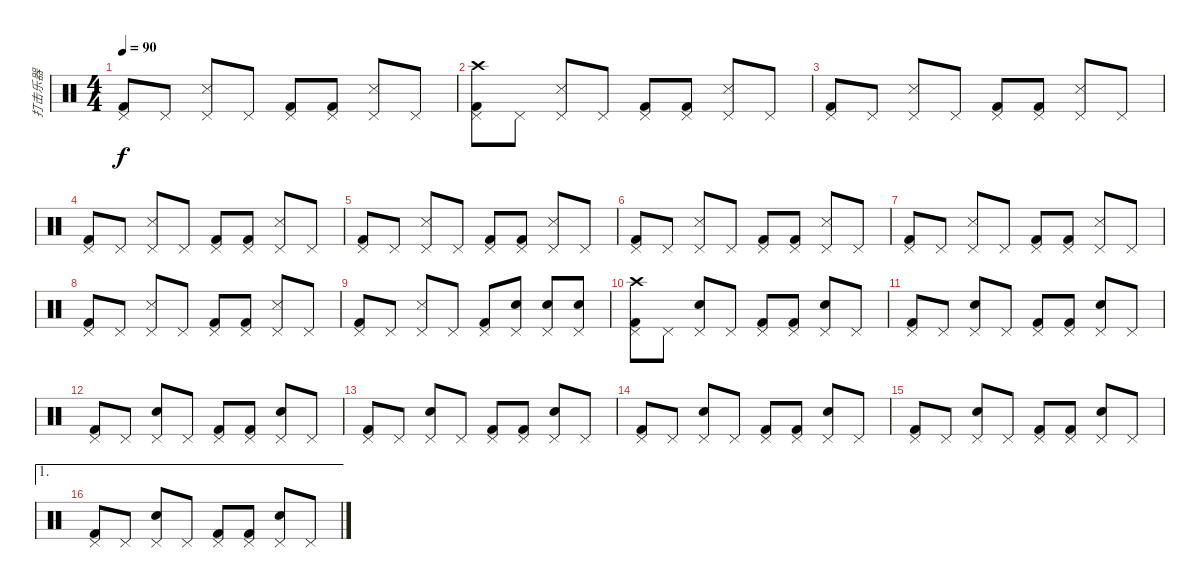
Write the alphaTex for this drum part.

\track ("打击乐器" "打击乐器") {instrument percussion}
\staff {score}
\articulation defaults
\ts (4 4)
\tempo 90
\clef neutral
\ks c
("Kick (hit) 2" "Pedal Hi-Hat (hit)").8{dy f} "Pedal Hi-Hat (hit)".8 ("Snare (side stick) 3" "Pedal Hi-Hat (hit)").8 "Pedal Hi-Hat (hit)".8 ("Kick (hit) 2" "Pedal Hi-Hat (hit)").8 ("Kick (hit) 2" "Pedal Hi-Hat (hit)").8 ("Snare (side stick) 3" "Pedal Hi-Hat (hit)").8 "Pedal Hi-Hat (hit)".8 |
("Crash high (hit)" "Kick (hit) 2" "Pedal Hi-Hat (hit)").8 "Pedal Hi-Hat (hit)".8 ("Snare (side stick) 3" "Pedal Hi-Hat (hit)").8 "Pedal Hi-Hat (hit)".8 ("Kick (hit) 2" "Pedal Hi-Hat (hit)").8 ("Kick (hit) 2" "Pedal Hi-Hat (hit)").8 ("Snare (side stick) 3" "Pedal Hi-Hat (hit)").8 "Pedal Hi-Hat (hit)".8 |
("Kick (hit) 2" "Pedal Hi-Hat (hit)").8 "Pedal Hi-Hat (hit)".8 ("Snare (side stick) 3" "Pedal Hi-Hat (hit)").8 "Pedal Hi-Hat (hit)".8 ("Kick (hit) 2" "Pedal Hi-Hat (hit)").8 ("Kick (hit) 2" "Pedal Hi-Hat (hit)").8 ("Snare (side stick) 3" "Pedal Hi-Hat (hit)").8 "Pedal Hi-Hat (hit)".8 |
("Kick (hit) 2" "Pedal Hi-Hat (hit)").8 "Pedal Hi-Hat (hit)".8 ("Snare (side stick) 3" "Pedal Hi-Hat (hit)").8 "Pedal Hi-Hat (hit)".8 ("Kick (hit) 2" "Pedal Hi-Hat (hit)").8 ("Kick (hit) 2" "Pedal Hi-Hat (hit)").8 ("Snare (side stick) 3" "Pedal Hi-Hat (hit)").8 "Pedal Hi-Hat (hit)".8 |
("Kick (hit) 2" "Pedal Hi-Hat (hit)").8 "Pedal Hi-Hat (hit)".8 ("Snare (side stick) 3" "Pedal Hi-Hat (hit)").8 "Pedal Hi-Hat (hit)".8 ("Kick (hit) 2" "Pedal Hi-Hat (hit)").8 ("Kick (hit) 2" "Pedal Hi-Hat (hit)").8 ("Snare (side stick) 3" "Pedal Hi-Hat (hit)").8 "Pedal Hi-Hat (hit)".8 |
("Kick (hit) 2" "Pedal Hi-Hat (hit)").8 "Pedal Hi-Hat (hit)".8 ("Snare (side stick) 3" "Pedal Hi-Hat (hit)").8 "Pedal Hi-Hat (hit)".8 ("Kick (hit) 2" "Pedal Hi-Hat (hit)").8 ("Kick (hit) 2" "Pedal Hi-Hat (hit)").8 ("Snare (side stick) 3" "Pedal Hi-Hat (hit)").8 "Pedal Hi-Hat (hit)".8 |
("Kick (hit) 2" "Pedal Hi-Hat (hit)").8 "Pedal Hi-Hat (hit)".8 ("Snare (side stick) 3" "Pedal Hi-Hat (hit)").8 "Pedal Hi-Hat (hit)".8 ("Kick (hit) 2" "Pedal Hi-Hat (hit)").8 ("Kick (hit) 2" "Pedal Hi-Hat (hit)").8 ("Snare (side stick) 3" "Pedal Hi-Hat (hit)").8 "Pedal Hi-Hat (hit)".8 |
("Kick (hit) 2" "Pedal Hi-Hat (hit)").8 "Pedal Hi-Hat (hit)".8 ("Snare (side stick) 3" "Pedal Hi-Hat (hit)").8 "Pedal Hi-Hat (hit)".8 ("Kick (hit) 2" "Pedal Hi-Hat (hit)").8 ("Kick (hit) 2" "Pedal Hi-Hat (hit)").8 ("Snare (side stick) 3" "Pedal Hi-Hat (hit)").8 "Pedal Hi-Hat (hit)".8 |
("Kick (hit) 2" "Pedal Hi-Hat (hit)").8 "Pedal Hi-Hat (hit)".8 ("Snare (side stick) 3" "Pedal Hi-Hat (hit)").8 "Pedal Hi-Hat (hit)".8 ("Kick (hit) 2" "Pedal Hi-Hat (hit)").8 ("Snare (hit) 2" "Pedal Hi-Hat (hit)").8 ("Snare (hit) 2" "Pedal Hi-Hat (hit)").8 ("Snare (hit) 2" "Pedal Hi-Hat (hit)").8 |
("Crash high (hit)" "Kick (hit) 2" "Pedal Hi-Hat (hit)").8 "Pedal Hi-Hat (hit)".8 ("Snare (hit) 2" "Pedal Hi-Hat (hit)").8 "Pedal Hi-Hat (hit)".8 ("Kick (hit) 2" "Pedal Hi-Hat (hit)").8 ("Kick (hit) 2" "Pedal Hi-Hat (hit)").8 ("Snare (hit) 2" "Pedal Hi-Hat (hit)").8 "Pedal Hi-Hat (hit)".8 |
("Kick (hit) 2" "Pedal Hi-Hat (hit)").8 "Pedal Hi-Hat (hit)".8 ("Snare (hit) 2" "Pedal Hi-Hat (hit)").8 "Pedal Hi-Hat (hit)".8 ("Kick (hit) 2" "Pedal Hi-Hat (hit)").8 ("Kick (hit) 2" "Pedal Hi-Hat (hit)").8 ("Snare (hit) 2" "Pedal Hi-Hat (hit)").8 "Pedal Hi-Hat (hit)".8 |
("Kick (hit) 2" "Pedal Hi-Hat (hit)").8 "Pedal Hi-Hat (hit)".8 ("Snare (hit) 2" "Pedal Hi-Hat (hit)").8 "Pedal Hi-Hat (hit)".8 ("Kick (hit) 2" "Pedal Hi-Hat (hit)").8 ("Kick (hit) 2" "Pedal Hi-Hat (hit)").8 ("Snare (hit) 2" "Pedal Hi-Hat (hit)").8 "Pedal Hi-Hat (hit)".8 |
("Kick (hit) 2" "Pedal Hi-Hat (hit)").8 "Pedal Hi-Hat (hit)".8 ("Snare (hit) 2" "Pedal Hi-Hat (hit)").8 "Pedal Hi-Hat (hit)".8 ("Kick (hit) 2" "Pedal Hi-Hat (hit)").8 ("Kick (hit) 2" "Pedal Hi-Hat (hit)").8 ("Snare (hit) 2" "Pedal Hi-Hat (hit)").8 "Pedal Hi-Hat (hit)".8 |
("Kick (hit) 2" "Pedal Hi-Hat (hit)").8 "Pedal Hi-Hat (hit)".8 ("Snare (hit) 2" "Pedal Hi-Hat (hit)").8 "Pedal Hi-Hat (hit)".8 ("Kick (hit) 2" "Pedal Hi-Hat (hit)").8 ("Kick (hit) 2" "Pedal Hi-Hat (hit)").8 ("Snare (hit) 2" "Pedal Hi-Hat (hit)").8 "Pedal Hi-Hat (hit)".8 |
("Kick (hit) 2" "Pedal Hi-Hat (hit)").8 "Pedal Hi-Hat (hit)".8 ("Snare (hit) 2" "Pedal Hi-Hat (hit)").8 "Pedal Hi-Hat (hit)".8 ("Kick (hit) 2" "Pedal Hi-Hat (hit)").8 ("Kick (hit) 2" "Pedal Hi-Hat (hit)").8 ("Snare (hit) 2" "Pedal Hi-Hat (hit)").8 "Pedal Hi-Hat (hit)".8 |
\ae 1
("Kick (hit) 2" "Pedal Hi-Hat (hit)").8 "Pedal Hi-Hat (hit)".8 ("Snare (hit) 2" "Pedal Hi-Hat (hit)").8 "Pedal Hi-Hat (hit)".8 ("Kick (hit) 2" "Pedal Hi-Hat (hit)").8 ("Kick (hit) 2" "Pedal Hi-Hat (hit)").8 ("Snare (hit) 2" "Pedal Hi-Hat (hit)").8 "Pedal Hi-Hat (hit)".8
